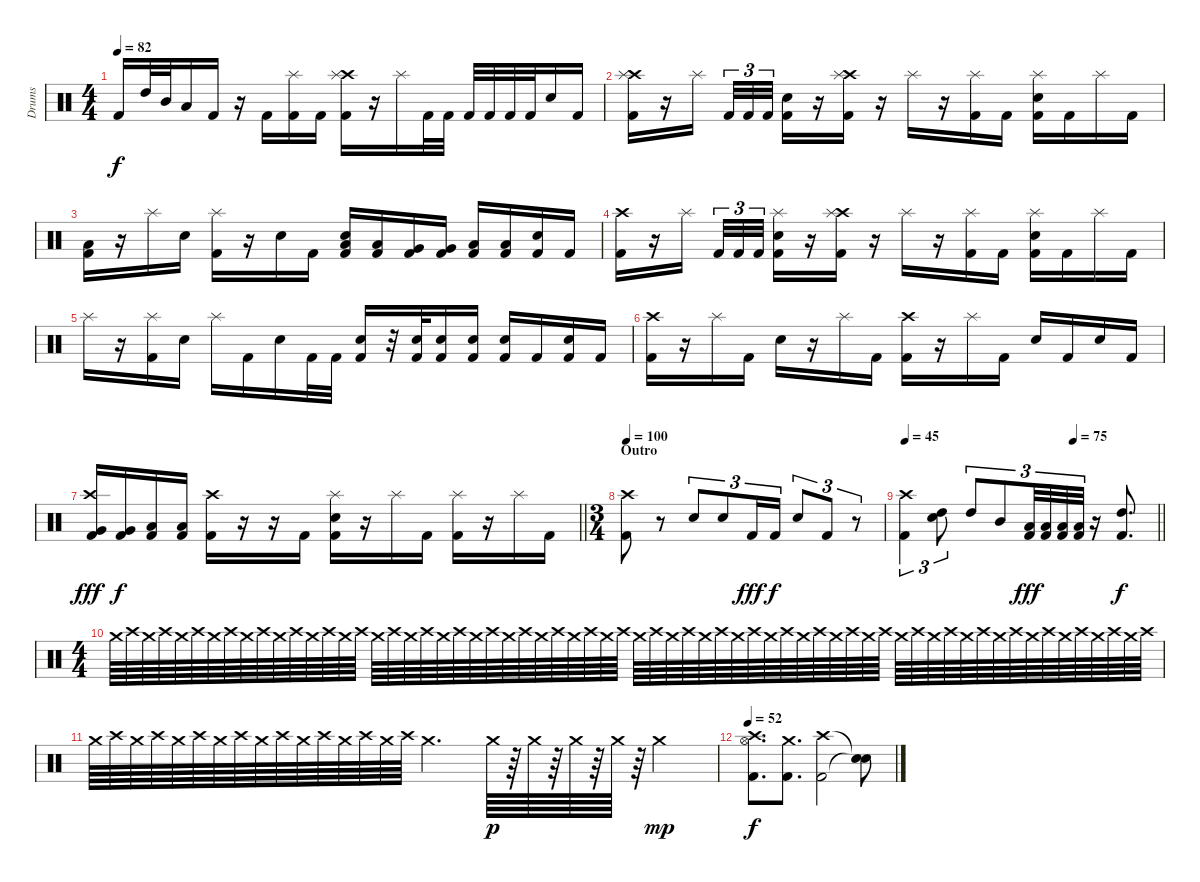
\track ("Drums" "Drums") {instrument percussion}
\staff {score}
\articulation defaults
\ts (4 4)
\tempo 82
\clef neutral
\ks c "Kick (hit) 2".16{dy f} "High Tom (hit)".32 "Mid Tom (hit)".32 "Low Tom (hit)".16 "Kick (hit) 2".16
r.16 "Kick (hit) 2".16 ("Splash (hit)" "Kick (hit) 2").16 "Kick (hit) 2".16 ("Crash high (hit)" "Splash (hit)" "Kick (hit) 2").16 r.16 "Splash (hit)".16 "Kick (hit) 2".32 "Kick (hit) 2".32 "Kick (hit) 2".32 "Kick (hit) 2".32 "Kick (hit) 2".32 "Kick (hit) 2".32 "Snare (hit) 2".16 "Kick (hit) 2".16 |
("Crash high (hit)" "Splash (hit)" "Kick (hit) 2").16 r.16 "Splash (hit)".16{beam splitsecondary} "Kick (hit) 2".32{tu (3 2)} "Kick (hit) 2".32{tu (3 2)} "Kick (hit) 2".32{tu (3 2)} ("Snare (hit) 2" "Kick (hit) 2").16 r.16 ("Crash high (hit)" "Splash (hit)" "Kick (hit) 2").16 r.16 "Splash (hit)".16 r.16 ("Splash (hit)" "Kick (hit) 2").16 "Kick (hit) 2".16 ("Splash (hit)" "Snare (hit) 2" "Kick (hit) 2").16 "Kick (hit) 2".16 "Splash (hit)".16 "Kick (hit) 2".16 |
("Low Floor Tom (hit)" "Kick (hit) 2").16 r.16 "Splash (hit)".16 "Snare (hit) 2".16 ("Splash (hit)" "Kick (hit) 2").16 r.16 "Snare (hit) 2".16 "Kick (hit) 2".16 ("Snare (hit) 2" "Kick (hit) 2" "Low Tom (hit)").16 ("Kick (hit) 2" "Low Tom (hit)").16 ("Kick (hit) 2" "Very Low Tom (hit)").16 ("Kick (hit) 2" "Very Low Tom (hit)").16 ("Kick (hit) 2" "Low Floor Tom (hit)").16 ("Kick (hit) 2" "Low Floor Tom (hit)").16 ("Snare (hit) 2" "Kick (hit) 2").16 "Kick (hit) 2".16 |
("Crash high (hit)" "Kick (hit) 2").16 r.16 "Splash (hit)".16{beam splitsecondary} "Kick (hit) 2".32{tu (3 2)} "Kick (hit) 2".32{tu (3 2)} "Kick (hit) 2".32{tu (3 2)} ("Splash (hit)" "Snare (hit) 2" "Kick (hit) 2").16 r.16 ("Crash high (hit)" "Splash (hit)" "Kick (hit) 2").16 r.16 "Splash (hit)".16 r.16 ("Splash (hit)" "Kick (hit) 2").16 "Kick (hit) 2".16 ("Splash (hit)" "Snare (hit) 2" "Kick (hit) 2").16 "Kick (hit) 2".16 "Splash (hit)".16 "Kick (hit) 2".16 |
"Splash (hit)".16 r.16 ("Splash (hit)" "Kick (hit) 2").16 "Snare (hit) 2".16 "Splash (hit)".16 "Kick (hit) 2".16 "Snare (hit) 2".16 "Kick (hit) 2".32 "Kick (hit) 2".32 ("Snare (hit) 2" "Kick (hit) 2").16 r.32 ("Snare (hit) 2" "Kick (hit) 2").32 ("Snare (hit) 2" "Kick (hit) 2").16 ("Snare (hit) 2" "Kick (hit) 2").16 ("Snare (hit) 2" "Kick (hit) 2").16 "Kick (hit) 2".16 ("Snare (hit) 2" "Kick (hit) 2").16 "Kick (hit) 2".16 |
("Crash high (hit)" "Kick (hit) 2").16 r.16 "Splash (hit)".16 "Kick (hit) 2".16 "Snare (hit) 2".16 r.16 "Splash (hit)".16 "Kick (hit) 2".16 ("Crash high (hit)" "Kick (hit) 2").16 r.16 "Splash (hit)".16 "Kick (hit) 2".16 "Snare (hit) 2".16 "Kick (hit) 2".16 "Snare (hit) 2".16 "Kick (hit) 2".16 |
\barLineRight lightlight
("Crash high (hit)" "Very Low Tom (hit)" "Kick (hit) 2").16{dy fff} ("Very Low Tom (hit)" "Kick (hit) 2").16{dy f} ("Low Floor Tom (hit)" "Kick (hit) 2").16 ("Low Floor Tom (hit)" "Kick (hit) 2").16 ("Crash high (hit)" "Kick (hit) 2").16 r.16 r.16 "Kick (hit) 2".16 ("Splash (hit)" "Snare (hit) 2" "Kick (hit) 2").16 r.16 "Splash (hit)".16 "Kick (hit) 2".16 ("Splash (hit)" "Kick (hit) 2").16 r.16 "Splash (hit)".16 "Kick (hit) 2".16 |
\ts (3 4)
\section ("" "Outro")
\tempo 100
("Crash high (hit)" "Kick (hit) 2").8 r.8 "Snare (hit) 2".8{tu (3 2)} "Snare (hit) 2".8{tu (3 2)} "Kick (hit) 2".16{tu (3 2) dy fff} "Kick (hit) 2".16{tu (3 2) dy f} "Snare (hit) 2".8{tu (3 2)} "Kick (hit) 2".8{tu (3 2)} r.8{tu (3 2)} |
\tempo 45
\tempo (75 0.6666666666666666)
\barLineRight lightlight
("Crash high (hit)" "Kick (hit) 2").4{tu (3 2)} ("Snare (hit) 2" "High Tom (hit)").8{tu (3 2)} "High Tom (hit)".8{tu (3 2)} "Mid Tom (hit)".8{tu (3 2)} ("Low Tom (hit)" "Kick (hit) 2").32{tu (3 2) dy fff} ("Low Tom (hit)" "Kick (hit) 2").32{tu (3 2)} ("Low Tom (hit)" "Kick (hit) 2").32{tu (3 2)} ("Low Tom (hit)" "Kick (hit) 2").32{tu (3 2)} r.16 ("High Tom (hit)" "Kick (hit) 2").8{d dy f} |
\ts (4 4)
"Crash medium (hit)".64{volume 0} "Crash high (hit)".64{volume 8} "Crash medium (hit)".64 "Crash high (hit)".64 "Crash medium (hit)".64 "Crash high (hit)".64 "Crash medium (hit)".64 "Crash high (hit)".64 "Crash medium (hit)".64 "Crash high (hit)".64 "Crash medium (hit)".64 "Crash high (hit)".64 "Crash medium (hit)".64 "Crash high (hit)".64 "Crash medium (hit)".64 "Crash high (hit)".64 "Crash medium (hit)".64 "Crash high (hit)".64 "Crash medium (hit)".64 "Crash high (hit)".64 "Crash medium (hit)".64 "Crash high (hit)".64 "Crash medium (hit)".64 "Crash high (hit)".64 "Crash medium (hit)".64 "Crash high (hit)".64 "Crash medium (hit)".64 "Crash high (hit)".64 "Crash medium (hit)".64 "Crash high (hit)".64 "Crash medium (hit)".64 "Crash high (hit)".64 "Crash medium (hit)".64 "Crash high (hit)".64 "Crash medium (hit)".64 "Crash high (hit)".64 "Crash medium (hit)".64 "Crash high (hit)".64 "Crash medium (hit)".64 "Crash high (hit)".64 "Crash medium (hit)".64 "Crash high (hit)".64 "Crash medium (hit)".64 "Crash high (hit)".64 "Crash medium (hit)".64 "Crash high (hit)".64 "Crash medium (hit)".64 "Crash high (hit)".64 "Crash medium (hit)".64{volume 0} "Crash high (hit)".64 "Crash medium (hit)".64 "Crash high (hit)".64 "Crash medium (hit)".64 "Crash high (hit)".64 "Crash medium (hit)".64 "Crash high (hit)".64 "Crash medium (hit)".64 "Crash high (hit)".64 "Crash medium (hit)".64 "Crash high (hit)".64 "Crash medium (hit)".64 "Crash high (hit)".64 "Crash medium (hit)".64 "Crash high (hit)".64 |
"Crash medium (hit)".64 "Crash high (hit)".64 "Crash medium (hit)".64 "Crash high (hit)".64 "Crash medium (hit)".64 "Crash high (hit)".64 "Crash medium (hit)".64 "Crash high (hit)".64 "Crash medium (hit)".64 "Crash high (hit)".64 "Crash medium (hit)".64 "Crash high (hit)".64 "Crash medium (hit)".64 "Crash high (hit)".64 "Crash medium (hit)".64 "Crash high (hit)".64 "Crash medium (hit)".4{d volume 13} "Crash medium (hit)".64{dy p} r.64 "Crash medium (hit)".64 r.64 "Crash medium (hit)".64 r.64 "Crash medium (hit)".64 r.64 "Crash medium (hit)".4{dy mp} |
\tempo 52
("Hi-Hat (open)" "Crash high (hit)" "Kick (hit) 2").8{d dy f} ("Crash medium (hit)" "Kick (hit) 2").8{d} ("Crash high (hit)" "Kick (hit) 2").2 ("Snare (hit)"{t} "Snare (hit)"{t}).8
